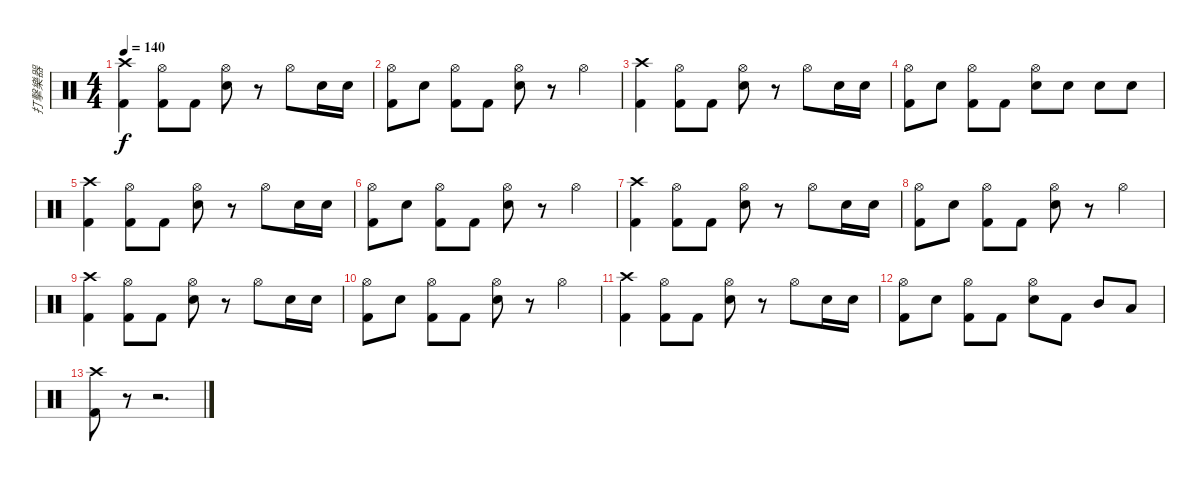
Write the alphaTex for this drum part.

\track ("打擊樂器" "打擊樂器") {instrument percussion}
\staff {score}
\articulation defaults
\ts (4 4)
\tempo 140
\clef neutral
\ks c
("Crash high (hit)" "Kick (hit) 2").4{dy f} ("Hi-Hat (open)" "Kick (hit) 2").8 "Kick (hit) 2".8 ("Hi-Hat (open)" "Electric Snare (hit)").8 r.8 "Hi-Hat (open)".8 "Electric Snare (hit)".16 "Electric Snare (hit)".16 |
("Hi-Hat (open)" "Kick (hit) 2").8 "Electric Snare (hit)".8 ("Hi-Hat (open)" "Kick (hit) 2").8 "Kick (hit) 2".8 ("Hi-Hat (open)" "Electric Snare (hit)").8 r.8 "Hi-Hat (open)".4 |
("Crash high (hit)" "Kick (hit) 2").4 ("Hi-Hat (open)" "Kick (hit) 2").8 "Kick (hit) 2".8 ("Hi-Hat (open)" "Electric Snare (hit)").8 r.8 "Hi-Hat (open)".8 "Electric Snare (hit)".16 "Electric Snare (hit)".16 |
("Hi-Hat (open)" "Kick (hit) 2").8 "Electric Snare (hit)".8 ("Hi-Hat (open)" "Kick (hit) 2").8 "Kick (hit) 2".8 ("Hi-Hat (open)" "Electric Snare (hit)").8 "Electric Snare (hit)".8 "Electric Snare (hit)".8 "Electric Snare (hit)".8 |
("Crash high (hit)" "Kick (hit) 2").4 ("Hi-Hat (open)" "Kick (hit) 2").8 "Kick (hit) 2".8 ("Hi-Hat (open)" "Electric Snare (hit)").8 r.8 "Hi-Hat (open)".8 "Electric Snare (hit)".16 "Electric Snare (hit)".16 |
("Hi-Hat (open)" "Kick (hit) 2").8 "Electric Snare (hit)".8 ("Hi-Hat (open)" "Kick (hit) 2").8 "Kick (hit) 2".8 ("Hi-Hat (open)" "Electric Snare (hit)").8 r.8 "Hi-Hat (open)".4 |
("Crash high (hit)" "Kick (hit) 2").4 ("Hi-Hat (open)" "Kick (hit) 2").8 "Kick (hit) 2".8 ("Hi-Hat (open)" "Electric Snare (hit)").8 r.8 "Hi-Hat (open)".8 "Electric Snare (hit)".16 "Electric Snare (hit)".16 |
("Hi-Hat (open)" "Kick (hit) 2").8 "Electric Snare (hit)".8 ("Hi-Hat (open)" "Kick (hit) 2").8 "Kick (hit) 2".8 ("Hi-Hat (open)" "Electric Snare (hit)").8 r.8 "Hi-Hat (open)".4 |
("Crash high (hit)" "Kick (hit) 2").4 ("Hi-Hat (open)" "Kick (hit) 2").8 "Kick (hit) 2".8 ("Hi-Hat (open)" "Electric Snare (hit)").8 r.8 "Hi-Hat (open)".8 "Electric Snare (hit)".16 "Electric Snare (hit)".16 |
("Hi-Hat (open)" "Kick (hit) 2").8 "Electric Snare (hit)".8 ("Hi-Hat (open)" "Kick (hit) 2").8 "Kick (hit) 2".8 ("Hi-Hat (open)" "Electric Snare (hit)").8 r.8 "Hi-Hat (open)".4 |
("Crash high (hit)" "Kick (hit) 2").4 ("Hi-Hat (open)" "Kick (hit) 2").8 "Kick (hit) 2".8 ("Hi-Hat (open)" "Electric Snare (hit)").8 r.8 "Hi-Hat (open)".8 "Electric Snare (hit)".16 "Electric Snare (hit)".16 |
("Hi-Hat (open)" "Kick (hit) 2").8 "Electric Snare (hit)".8 ("Hi-Hat (open)" "Kick (hit) 2").8 "Kick (hit) 2".8 ("Hi-Hat (open)" "Electric Snare (hit)").8 "Kick (hit) 2".8 "Mid Tom (hit)".8 "Low Tom (hit)".8 |
("Crash high (hit)" "Kick (hit) 2").8 r.8 r.2{d}
